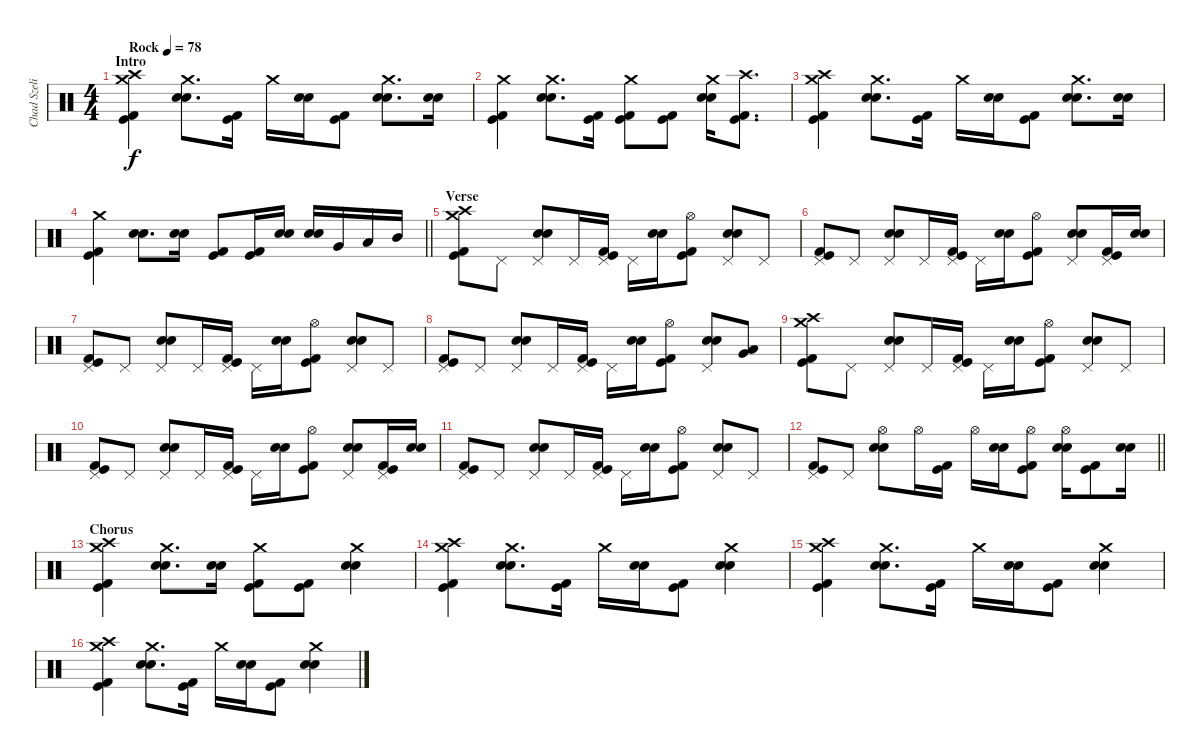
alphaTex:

\track ("Chad Szeliga" "Chad Szeli") {instrument percussion}
\staff {score}
\articulation defaults
\ts (4 4)
\section ("" "Intro")
\tempo (78 "Rock")
\clef neutral
\ks c
("Crash high (hit)" "Kick (hit) 2" "Kick (hit)" "Crash medium (hit)").4{dy f} ("Crash medium (hit)" "Snare (hit) 2" "Snare (hit) 2").8{d} ("Kick (hit) 2" "Kick (hit)").16 "Crash medium (hit)".16 ("Snare (hit) 2" "Snare (hit) 2").16 ("Kick (hit) 2" "Kick (hit)").8 ("Crash medium (hit)" "Snare (hit) 2" "Snare (hit) 2").8{d} ("Snare (hit) 2" "Snare (hit) 2").16 |
("Crash medium (hit)" "Kick (hit) 2" "Kick (hit)").4 ("Crash medium (hit)" "Snare (hit) 2" "Snare (hit) 2").8{d} ("Kick (hit) 2" "Kick (hit)").16 ("Crash medium (hit)" "Kick (hit) 2" "Kick (hit)").8 ("Kick (hit) 2" "Kick (hit)").8 ("Crash medium (hit)" "Snare (hit) 2" "Snare (hit) 2").16 ("Crash high (hit)" "Kick (hit) 2" "Kick (hit)").8{d} |
("Crash high (hit)" "Kick (hit) 2" "Kick (hit)" "Crash medium (hit)").4 ("Crash medium (hit)" "Snare (hit) 2" "Snare (hit) 2").8{d} ("Kick (hit) 2" "Kick (hit)").16 "Crash medium (hit)".16 ("Snare (hit) 2" "Snare (hit) 2").16 ("Kick (hit) 2" "Kick (hit)").8 ("Crash medium (hit)" "Snare (hit) 2" "Snare (hit) 2").8{d} ("Snare (hit) 2" "Snare (hit) 2").16 |
\barLineRight lightlight
("Crash medium (hit)" "Kick (hit) 2" "Kick (hit)").4 ("Snare (hit) 2" "Snare (hit) 2").8{d} ("Snare (hit) 2" "Snare (hit) 2").16 ("Kick (hit) 2" "Kick (hit)").8 ("Kick (hit) 2" "Kick (hit)").16 ("Snare (hit) 2" "Snare (hit) 2").16 ("Snare (hit) 2" "Snare (hit) 2").16 "Very Low Tom (hit)".16 "Low Tom (hit)".16 "Mid Tom (hit)".16 |
\section ("" "Verse")
("Crash high (hit)" "Kick (hit) 2" "Kick (hit)" "Crash medium (hit)").8 "Pedal Hi-Hat (hit)".8 ("Snare (hit) 2" "Snare (hit) 2" "Pedal Hi-Hat (hit)").8 "Pedal Hi-Hat (hit)".16 ("Kick (hit) 2" "Kick (hit)" "Pedal Hi-Hat (hit)").16 "Pedal Hi-Hat (hit)".16 ("Snare (hit) 2" "Snare (hit) 2").16 ("Kick (hit) 2" "Kick (hit)" "Hi-Hat (open)").8 ("Snare (hit) 2" "Snare (hit) 2" "Pedal Hi-Hat (hit)").8 "Pedal Hi-Hat (hit)".8 |
("Kick (hit) 2" "Kick (hit)" "Pedal Hi-Hat (hit)").8 "Pedal Hi-Hat (hit)".8 ("Snare (hit) 2" "Snare (hit) 2" "Pedal Hi-Hat (hit)").8 "Pedal Hi-Hat (hit)".16 ("Kick (hit) 2" "Kick (hit)" "Pedal Hi-Hat (hit)").16 "Pedal Hi-Hat (hit)".16 ("Snare (hit) 2" "Snare (hit) 2").16 ("Kick (hit) 2" "Kick (hit)" "Hi-Hat (open)").8 ("Snare (hit) 2" "Snare (hit) 2" "Pedal Hi-Hat (hit)").8 ("Kick (hit) 2" "Kick (hit)" "Pedal Hi-Hat (hit)").16 ("Snare (hit) 2" "Snare (hit) 2").16 |
("Kick (hit) 2" "Kick (hit)" "Pedal Hi-Hat (hit)").8 "Pedal Hi-Hat (hit)".8 ("Snare (hit) 2" "Snare (hit) 2" "Pedal Hi-Hat (hit)").8 "Pedal Hi-Hat (hit)".16 ("Kick (hit) 2" "Kick (hit)" "Pedal Hi-Hat (hit)").16 "Pedal Hi-Hat (hit)".16 ("Snare (hit) 2" "Snare (hit) 2").16 ("Kick (hit) 2" "Kick (hit)" "Hi-Hat (open)").8 ("Snare (hit) 2" "Snare (hit) 2" "Pedal Hi-Hat (hit)").8 "Pedal Hi-Hat (hit)".8 |
("Kick (hit) 2" "Kick (hit)" "Pedal Hi-Hat (hit)").8 "Pedal Hi-Hat (hit)".8 ("Snare (hit) 2" "Snare (hit) 2" "Pedal Hi-Hat (hit)").8 "Pedal Hi-Hat (hit)".16 ("Kick (hit) 2" "Kick (hit)" "Pedal Hi-Hat (hit)").16 "Pedal Hi-Hat (hit)".16 ("Snare (hit) 2" "Snare (hit) 2").16 ("Kick (hit) 2" "Kick (hit)" "Hi-Hat (open)").8 ("Snare (hit) 2" "Snare (hit) 2" "Pedal Hi-Hat (hit)").8 ("Very Low Tom (hit)" "Low Tom (hit)").8 |
("Crash high (hit)" "Kick (hit) 2" "Kick (hit)" "Crash medium (hit)").8 "Pedal Hi-Hat (hit)".8 ("Snare (hit) 2" "Snare (hit) 2" "Pedal Hi-Hat (hit)").8 "Pedal Hi-Hat (hit)".16 ("Kick (hit) 2" "Kick (hit)" "Pedal Hi-Hat (hit)").16 "Pedal Hi-Hat (hit)".16 ("Snare (hit) 2" "Snare (hit) 2").16 ("Kick (hit) 2" "Kick (hit)" "Hi-Hat (open)").8 ("Snare (hit) 2" "Snare (hit) 2" "Pedal Hi-Hat (hit)").8 "Pedal Hi-Hat (hit)".8 |
("Kick (hit) 2" "Kick (hit)" "Pedal Hi-Hat (hit)").8 "Pedal Hi-Hat (hit)".8 ("Snare (hit) 2" "Snare (hit) 2" "Pedal Hi-Hat (hit)").8 "Pedal Hi-Hat (hit)".16 ("Kick (hit) 2" "Kick (hit)" "Pedal Hi-Hat (hit)").16 "Pedal Hi-Hat (hit)".16 ("Snare (hit) 2" "Snare (hit) 2").16 ("Kick (hit) 2" "Kick (hit)" "Hi-Hat (open)").8 ("Snare (hit) 2" "Snare (hit) 2" "Pedal Hi-Hat (hit)").8 ("Kick (hit) 2" "Kick (hit)" "Pedal Hi-Hat (hit)").16 ("Snare (hit) 2" "Snare (hit) 2").16 |
("Kick (hit) 2" "Kick (hit)" "Pedal Hi-Hat (hit)").8 "Pedal Hi-Hat (hit)".8 ("Snare (hit) 2" "Snare (hit) 2" "Pedal Hi-Hat (hit)").8 "Pedal Hi-Hat (hit)".16 ("Kick (hit) 2" "Kick (hit)" "Pedal Hi-Hat (hit)").16 "Pedal Hi-Hat (hit)".16 ("Snare (hit) 2" "Snare (hit) 2").16 ("Kick (hit) 2" "Kick (hit)" "Hi-Hat (open)").8 ("Snare (hit) 2" "Snare (hit) 2" "Pedal Hi-Hat (hit)").8 "Pedal Hi-Hat (hit)".8 |
\barLineRight lightlight
("Kick (hit) 2" "Kick (hit)" "Pedal Hi-Hat (hit)").8 "Pedal Hi-Hat (hit)".8 ("Snare (hit) 2" "Snare (hit) 2" "Hi-Hat (open)").8 "Hi-Hat (open)".16 ("Kick (hit) 2" "Kick (hit)").16 "Hi-Hat (open)".16 ("Snare (hit) 2" "Snare (hit) 2").16 ("Kick (hit) 2" "Kick (hit)" "Hi-Hat (open)").8 ("Snare (hit) 2" "Snare (hit) 2" "Hi-Hat (open)").16 ("Kick (hit) 2" "Kick (hit)").8 ("Snare (hit) 2" "Snare (hit) 2").16 |
\section ("" "Chorus")
("Crash high (hit)" "Kick (hit) 2" "Kick (hit)" "Crash medium (hit)").4 ("Crash medium (hit)" "Snare (hit) 2" "Snare (hit) 2").8{d} ("Snare (hit) 2" "Snare (hit) 2").16 ("Crash medium (hit)" "Kick (hit) 2" "Kick (hit)").8 ("Kick (hit) 2" "Kick (hit)").8 ("Crash medium (hit)" "Snare (hit) 2" "Snare (hit) 2").4 |
("Crash high (hit)" "Kick (hit) 2" "Kick (hit)" "Crash medium (hit)").4 ("Crash medium (hit)" "Snare (hit) 2" "Snare (hit) 2").8{d} ("Kick (hit) 2" "Kick (hit)").16 "Crash medium (hit)".16 ("Snare (hit) 2" "Snare (hit) 2").16 ("Kick (hit) 2" "Kick (hit)").8 ("Crash medium (hit)" "Snare (hit) 2" "Snare (hit) 2").4 |
("Crash high (hit)" "Kick (hit) 2" "Kick (hit)" "Crash medium (hit)").4 ("Crash medium (hit)" "Snare (hit) 2" "Snare (hit) 2").8{d} ("Kick (hit) 2" "Kick (hit)").16 "Crash medium (hit)".16 ("Snare (hit) 2" "Snare (hit) 2").16 ("Kick (hit) 2" "Kick (hit)").8 ("Crash medium (hit)" "Snare (hit) 2" "Snare (hit) 2").4 |
("Crash high (hit)" "Kick (hit) 2" "Kick (hit)" "Crash medium (hit)").4 ("Crash medium (hit)" "Snare (hit) 2" "Snare (hit) 2").8{d} ("Kick (hit) 2" "Kick (hit)").16 "Crash medium (hit)".16 ("Snare (hit) 2" "Snare (hit) 2").16 ("Kick (hit) 2" "Kick (hit)").8 ("Crash medium (hit)" "Snare (hit) 2" "Snare (hit) 2").4
